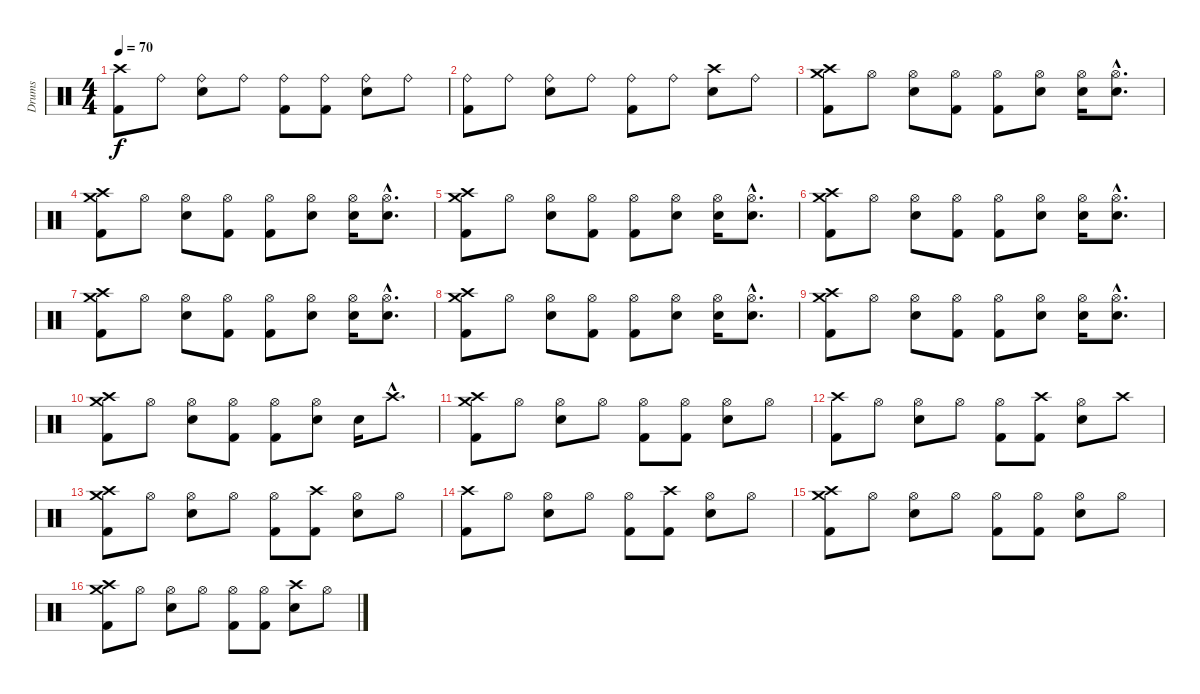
\track ("Drums" "Drums") {instrument percussion}
\staff {score}
\articulation defaults
\ts (4 4)
\tempo 70
\clef neutral
\ks c
("Crash high (hit)" "Kick (hit) 2").8{dy f} "Ride (bell)".8 ("Ride (bell)" "Electric Snare (hit)").8 "Ride (bell)".8 ("Ride (bell)" "Kick (hit) 2").8 ("Ride (bell)" "Kick (hit) 2").8 ("Ride (bell)" "Electric Snare (hit)").8 "Ride (bell)".8 |
("Ride (bell)" "Kick (hit) 2").8 "Ride (bell)".8 ("Ride (bell)" "Electric Snare (hit)").8 "Ride (bell)".8 ("Ride (bell)" "Kick (hit) 2").8 "Ride (bell)".8 ("Crash high (hit)" "Electric Snare (hit)").8 "Ride (bell)".8 |
("Crash high (hit)" "Crash medium (hit)" "Kick (hit) 2").8 "Hi-Hat (open)".8 ("Hi-Hat (open)" "Electric Snare (hit)").8 ("Hi-Hat (open)" "Kick (hit) 2").8 ("Hi-Hat (open)" "Kick (hit) 2").8 ("Hi-Hat (open)" "Electric Snare (hit)").8 ("Hi-Hat (open)" "Electric Snare (hit)").16 ("Hi-Hat (open)"{hac} "Electric Snare (hit)"{hac}).8{d} |
("Crash high (hit)" "Crash medium (hit)" "Kick (hit) 2").8 "Hi-Hat (open)".8 ("Hi-Hat (open)" "Electric Snare (hit)").8 ("Hi-Hat (open)" "Kick (hit) 2").8 ("Hi-Hat (open)" "Kick (hit) 2").8 ("Hi-Hat (open)" "Electric Snare (hit)").8 ("Hi-Hat (open)" "Electric Snare (hit)").16 ("Hi-Hat (open)"{hac} "Electric Snare (hit)"{hac}).8{d} |
("Crash high (hit)" "Crash medium (hit)" "Kick (hit) 2").8 "Hi-Hat (open)".8 ("Hi-Hat (open)" "Electric Snare (hit)").8 ("Hi-Hat (open)" "Kick (hit) 2").8 ("Hi-Hat (open)" "Kick (hit) 2").8 ("Hi-Hat (open)" "Electric Snare (hit)").8 ("Hi-Hat (open)" "Electric Snare (hit)").16 ("Hi-Hat (open)"{hac} "Electric Snare (hit)"{hac}).8{d} |
("Crash high (hit)" "Crash medium (hit)" "Kick (hit) 2").8 "Hi-Hat (open)".8 ("Hi-Hat (open)" "Electric Snare (hit)").8 ("Hi-Hat (open)" "Kick (hit) 2").8 ("Hi-Hat (open)" "Kick (hit) 2").8 ("Hi-Hat (open)" "Electric Snare (hit)").8 ("Hi-Hat (open)" "Electric Snare (hit)").16 ("Hi-Hat (open)"{hac} "Electric Snare (hit)"{hac}).8{d} |
("Crash high (hit)" "Crash medium (hit)" "Kick (hit) 2").8 "Hi-Hat (open)".8 ("Hi-Hat (open)" "Electric Snare (hit)").8 ("Hi-Hat (open)" "Kick (hit) 2").8 ("Hi-Hat (open)" "Kick (hit) 2").8 ("Hi-Hat (open)" "Electric Snare (hit)").8 ("Hi-Hat (open)" "Electric Snare (hit)").16 ("Hi-Hat (open)"{hac} "Electric Snare (hit)"{hac}).8{d} |
("Crash high (hit)" "Crash medium (hit)" "Kick (hit) 2").8 "Hi-Hat (open)".8 ("Hi-Hat (open)" "Electric Snare (hit)").8 ("Hi-Hat (open)" "Kick (hit) 2").8 ("Hi-Hat (open)" "Kick (hit) 2").8 ("Hi-Hat (open)" "Electric Snare (hit)").8 ("Hi-Hat (open)" "Electric Snare (hit)").16 ("Hi-Hat (open)"{hac} "Electric Snare (hit)"{hac}).8{d} |
("Crash high (hit)" "Crash medium (hit)" "Kick (hit) 2").8 "Hi-Hat (open)".8 ("Hi-Hat (open)" "Electric Snare (hit)").8 ("Hi-Hat (open)" "Kick (hit) 2").8 ("Hi-Hat (open)" "Kick (hit) 2").8 ("Hi-Hat (open)" "Electric Snare (hit)").8 ("Hi-Hat (open)" "Electric Snare (hit)").16 ("Hi-Hat (open)"{hac} "Electric Snare (hit)"{hac}).8{d} |
("Crash high (hit)" "Crash medium (hit)" "Kick (hit) 2").8 "Hi-Hat (open)".8 ("Hi-Hat (open)" "Electric Snare (hit)").8 ("Hi-Hat (open)" "Kick (hit) 2").8 ("Hi-Hat (open)" "Kick (hit) 2").8 ("Hi-Hat (open)" "Electric Snare (hit)").8 "Electric Snare (hit)".16 "Crash high (hit)"{hac}.8{d} |
("Crash high (hit)" "Crash medium (hit)" "Kick (hit) 2").8 "Hi-Hat (open)".8 ("Hi-Hat (open)" "Electric Snare (hit)").8 "Hi-Hat (open)".8 ("Hi-Hat (open)" "Kick (hit) 2").8 ("Hi-Hat (open)" "Kick (hit) 2").8 ("Hi-Hat (open)" "Electric Snare (hit)").8 "Hi-Hat (open)".8 |
("Crash high (hit)" "Kick (hit) 2").8 "Hi-Hat (open)".8 ("Hi-Hat (open)" "Electric Snare (hit)").8 "Hi-Hat (open)".8 ("Hi-Hat (open)" "Kick (hit) 2").8 ("Crash high (hit)" "Kick (hit) 2").8 ("Hi-Hat (open)" "Electric Snare (hit)").8 "Crash high (hit)".8 |
("Crash high (hit)" "Crash medium (hit)" "Kick (hit) 2").8 "Hi-Hat (open)".8 ("Hi-Hat (open)" "Electric Snare (hit)").8 "Hi-Hat (open)".8 ("Hi-Hat (open)" "Kick (hit) 2").8 ("Crash high (hit)" "Kick (hit) 2").8 ("Hi-Hat (open)" "Electric Snare (hit)").8 "Hi-Hat (open)".8 |
("Crash high (hit)" "Kick (hit) 2").8 "Hi-Hat (open)".8 ("Hi-Hat (open)" "Electric Snare (hit)").8 "Hi-Hat (open)".8 ("Hi-Hat (open)" "Kick (hit) 2").8 ("Crash high (hit)" "Kick (hit) 2").8 ("Hi-Hat (open)" "Electric Snare (hit)").8 "Hi-Hat (open)".8 |
("Crash high (hit)" "Crash medium (hit)" "Kick (hit) 2").8 "Hi-Hat (open)".8 ("Hi-Hat (open)" "Electric Snare (hit)").8 "Hi-Hat (open)".8 ("Hi-Hat (open)" "Kick (hit) 2").8 ("Hi-Hat (open)" "Kick (hit) 2").8 ("Hi-Hat (open)" "Electric Snare (hit)").8 "Hi-Hat (open)".8 |
("Crash high (hit)" "Crash medium (hit)" "Kick (hit) 2").8 "Hi-Hat (open)".8 ("Hi-Hat (open)" "Electric Snare (hit)").8 "Hi-Hat (open)".8 ("Hi-Hat (open)" "Kick (hit) 2").8 ("Hi-Hat (open)" "Kick (hit) 2").8 ("Crash high (hit)" "Electric Snare (hit)").8 "Hi-Hat (open)".8
